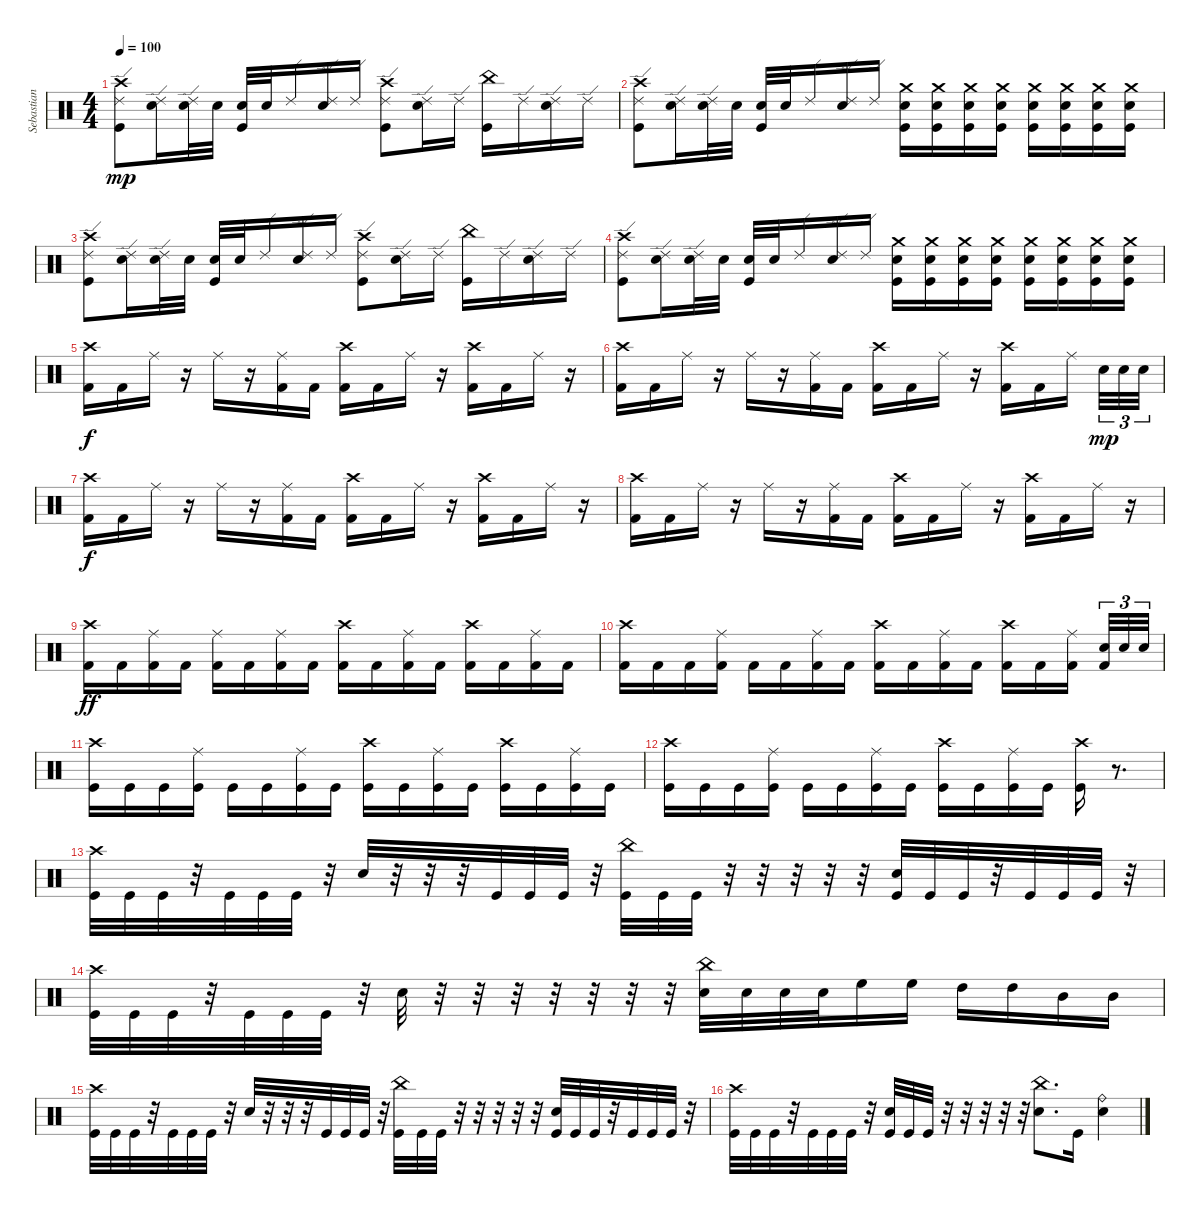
\track ("Sebastian Heldt" "Sebastian ") {instrument percussion bank 177}
\staff {score}
\articulation defaults
\ts (4 4)
\tempo 100
\clef neutral
\ks c
("Crash high (hit)" "Kick (hit)" "Ride (edge) 2").8{dy mp} ("Snare (hit) 2" "Ride (edge) 2").16 ("Snare (hit) 2" "Ride (edge) 2").32 "Snare (hit) 2".32 ("Snare (hit) 2" "Kick (hit)").32 "Snare (hit) 2".32 "Ride (edge) 2".16 ("Snare (hit) 2" "Ride (edge) 2").16 "Ride (edge) 2".16 ("Crash high (hit)" "Kick (hit)" "Ride (edge) 2").8 ("Snare (hit) 2" "Ride (edge) 2").16 "Ride (edge) 2".16 ("China (hit)" "Kick (hit)").16 "Ride (edge) 2".16 ("Snare (hit) 2" "Ride (edge) 2").16 "Ride (edge) 2".16 |
("Crash high (hit)" "Kick (hit)" "Ride (edge) 2").8 ("Snare (hit) 2" "Ride (edge) 2").16 ("Snare (hit) 2" "Ride (edge) 2").32 "Snare (hit) 2".32 ("Snare (hit) 2" "Kick (hit)").32 "Snare (hit) 2".32 "Ride (edge) 2".16 ("Snare (hit) 2" "Ride (edge) 2").16 "Ride (edge) 2".16 ("Kick (hit)" "Crash medium (hit)" "Snare (hit) 2").16 ("Kick (hit)" "Crash medium (hit)" "Snare (hit) 2").16 ("Kick (hit)" "Crash medium (hit)" "Snare (hit) 2").16 ("Kick (hit)" "Crash medium (hit)" "Snare (hit) 2").16 ("Kick (hit)" "Crash medium (hit)" "Snare (hit) 2").16 ("Kick (hit)" "Crash medium (hit)" "Snare (hit) 2").16 ("Kick (hit)" "Crash medium (hit)" "Snare (hit) 2").16 ("Kick (hit)" "Crash medium (hit)" "Snare (hit) 2").16 |
("Crash high (hit)" "Kick (hit)" "Ride (edge) 2").8 ("Snare (hit) 2" "Ride (edge) 2").16 ("Snare (hit) 2" "Ride (edge) 2").32 "Snare (hit) 2".32 ("Snare (hit) 2" "Kick (hit)").32 "Snare (hit) 2".32 "Ride (edge) 2".16 ("Snare (hit) 2" "Ride (edge) 2").16 "Ride (edge) 2".16 ("Crash high (hit)" "Kick (hit)" "Ride (edge) 2").8 ("Snare (hit) 2" "Ride (edge) 2").16 "Ride (edge) 2".16 ("China (hit)" "Kick (hit)").16 "Ride (edge) 2".16 ("Snare (hit) 2" "Ride (edge) 2").16 "Ride (edge) 2".16 |
("Crash high (hit)" "Kick (hit)" "Ride (edge) 2").8 ("Snare (hit) 2" "Ride (edge) 2").16 ("Snare (hit) 2" "Ride (edge) 2").32 "Snare (hit) 2".32 ("Snare (hit) 2" "Kick (hit)").32 "Snare (hit) 2".32 "Ride (edge) 2".16 ("Snare (hit) 2" "Ride (edge) 2").16 "Ride (edge) 2".16 ("Kick (hit)" "Crash medium (hit)" "Snare (hit) 2").16 ("Kick (hit)" "Crash medium (hit)" "Snare (hit) 2").16 ("Kick (hit)" "Crash medium (hit)" "Snare (hit) 2").16 ("Kick (hit)" "Crash medium (hit)" "Snare (hit) 2").16 ("Kick (hit)" "Crash medium (hit)" "Snare (hit) 2").16 ("Kick (hit)" "Crash medium (hit)" "Snare (hit) 2").16 ("Kick (hit)" "Crash medium (hit)" "Snare (hit) 2").16 ("Kick (hit)" "Crash medium (hit)" "Snare (hit) 2").16 |
("Crash high (hit)" "Kick (hit) 2").16{dy f} "Kick (hit) 2".16 "Ride (middle)".16 r.16 "Ride (middle)".16 r.16 ("Ride (middle)" "Kick (hit) 2").16 "Kick (hit) 2".16 ("Crash high (hit)" "Kick (hit) 2").16 "Kick (hit) 2".16 "Ride (middle)".16 r.16 ("Crash high (hit)" "Kick (hit) 2").16 "Kick (hit) 2".16 "Ride (middle)".16 r.16 |
("Crash high (hit)" "Kick (hit) 2").16 "Kick (hit) 2".16 "Ride (middle)".16 r.16 "Ride (middle)".16 r.16 ("Ride (middle)" "Kick (hit) 2").16 "Kick (hit) 2".16 ("Crash high (hit)" "Kick (hit) 2").16 "Kick (hit) 2".16 "Ride (middle)".16 r.16 ("Crash high (hit)" "Kick (hit) 2").16 "Kick (hit) 2".16 "Ride (middle)".16{beam splitsecondary} "Snare (hit) 2".32{tu (3 2) dy mp} "Snare (hit) 2".32{tu (3 2)} "Snare (hit) 2".32{tu (3 2)} |
("Crash high (hit)" "Kick (hit) 2").16{dy f} "Kick (hit) 2".16 "Ride (middle)".16 r.16 "Ride (middle)".16 r.16 ("Ride (middle)" "Kick (hit) 2").16 "Kick (hit) 2".16 ("Crash high (hit)" "Kick (hit) 2").16 "Kick (hit) 2".16 "Ride (middle)".16 r.16 ("Crash high (hit)" "Kick (hit) 2").16 "Kick (hit) 2".16 "Ride (middle)".16 r.16 |
("Crash high (hit)" "Kick (hit) 2").16 "Kick (hit) 2".16 "Ride (middle)".16 r.16 "Ride (middle)".16 r.16 ("Ride (middle)" "Kick (hit) 2").16 "Kick (hit) 2".16 ("Crash high (hit)" "Kick (hit) 2").16 "Kick (hit) 2".16 "Ride (middle)".16 r.16 ("Crash high (hit)" "Kick (hit) 2").16 "Kick (hit) 2".16 "Ride (middle)".16 r.16 |
("Crash high (hit)" "Kick (hit) 2").16{dy ff} "Kick (hit) 2".16 ("Ride (middle)" "Kick (hit) 2").16 "Kick (hit) 2".16 ("Ride (middle)" "Kick (hit) 2").16 "Kick (hit) 2".16 ("Ride (middle)" "Kick (hit) 2").16 "Kick (hit) 2".16 ("Crash high (hit)" "Kick (hit) 2").16 "Kick (hit) 2".16 ("Ride (middle)" "Kick (hit) 2").16 "Kick (hit) 2".16 ("Crash high (hit)" "Kick (hit) 2").16 "Kick (hit) 2".16 ("Ride (middle)" "Kick (hit) 2").16 "Kick (hit) 2".16 |
("Crash high (hit)" "Kick (hit) 2").16 "Kick (hit) 2".16 "Kick (hit) 2".16 ("Ride (middle)" "Kick (hit) 2").16 "Kick (hit) 2".16 "Kick (hit) 2".16 ("Ride (middle)" "Kick (hit) 2").16 "Kick (hit) 2".16 ("Crash high (hit)" "Kick (hit) 2").16 "Kick (hit) 2".16 ("Ride (middle)" "Kick (hit) 2").16 "Kick (hit) 2".16 ("Crash high (hit)" "Kick (hit) 2").16 "Kick (hit) 2".16 ("Ride (middle)" "Kick (hit) 2").16{beam splitsecondary} ("Snare (hit) 2" "Kick (hit) 2").32{tu (3 2)} "Snare (hit) 2".32{tu (3 2)} "Snare (hit) 2".32{tu (3 2)} |
("Crash high (hit)" "Kick (hit)").16 "Kick (hit)".16 "Kick (hit)".16 ("Ride (middle)" "Kick (hit)").16 "Kick (hit)".16 "Kick (hit)".16 ("Ride (middle)" "Kick (hit)").16 "Kick (hit)".16 ("Crash high (hit)" "Kick (hit)").16 "Kick (hit)".16 ("Ride (middle)" "Kick (hit)").16 "Kick (hit)".16 ("Crash high (hit)" "Kick (hit)").16 "Kick (hit)".16 ("Ride (middle)" "Kick (hit)").16 "Kick (hit)".16 |
("Crash high (hit)" "Kick (hit)").16 "Kick (hit)".16 "Kick (hit)".16 ("Ride (middle)" "Kick (hit)").16 "Kick (hit)".16 "Kick (hit)".16 ("Ride (middle)" "Kick (hit)").16 "Kick (hit)".16 ("Crash high (hit)" "Kick (hit)").16 "Kick (hit)".16 ("Ride (middle)" "Kick (hit)").16 "Kick (hit)".16 ("Crash high (hit)" "Kick (hit)").16 r.8{d} |
("Kick (hit)" "Crash high (hit)").32 "Kick (hit)".32 "Kick (hit)".32 r.32 "Kick (hit)".32 "Kick (hit)".32 "Kick (hit)".32 r.32 "Snare (hit) 2".32 r.32 r.32 r.32 "Kick (hit)".32 "Kick (hit)".32 "Kick (hit)".32 r.32 ("Kick (hit)" "China (hit)").32 "Kick (hit)".32 "Kick (hit)".32 r.32 r.32 r.32 r.32 r.32 ("Kick (hit)" "Snare (hit) 2").32 "Kick (hit)".32 "Kick (hit)".32 r.32 "Kick (hit)".32 "Kick (hit)".32 "Kick (hit)".32 r.32 |
("Kick (hit)" "Crash high (hit)").32 "Kick (hit)".32 "Kick (hit)".32 r.32 "Kick (hit)".32 "Kick (hit)".32 "Kick (hit)".32 r.32 "Snare (hit) 2".32 r.32 r.32 r.32 r.32 r.32 r.32 r.32 ("Snare (hit) 2" "China (hit)").32 "Snare (hit) 2".32 "Snare (hit) 2".32 "Snare (hit) 2".32 "High Floor Tom (hit)".16 "High Floor Tom (hit)".16 "High Tom (hit)".16 "High Tom (hit)".16 "Mid Tom (hit)".16 "Mid Tom (hit)".16 |
("Kick (hit)" "Crash high (hit)").32 "Kick (hit)".32 "Kick (hit)".32 r.32 "Kick (hit)".32 "Kick (hit)".32 "Kick (hit)".32 r.32 "Snare (hit) 2".32 r.32 r.32 r.32 "Kick (hit)".32 "Kick (hit)".32 "Kick (hit)".32 r.32 ("Kick (hit)" "China (hit)").32 "Kick (hit)".32 "Kick (hit)".32 r.32 r.32 r.32 r.32 r.32 ("Kick (hit)" "Snare (hit) 2").32 "Kick (hit)".32 "Kick (hit)".32 r.32 "Kick (hit)".32 "Kick (hit)".32 "Kick (hit)".32 r.32 |
("Kick (hit)" "Crash high (hit)").32 "Kick (hit)".32 "Kick (hit)".32 r.32 "Kick (hit)".32 "Kick (hit)".32 "Kick (hit)".32 r.32 ("Kick (hit)" "Snare (hit) 2").32 "Kick (hit)".32 "Kick (hit)".32 r.32 r.32 r.32 r.32 r.32 ("Snare (hit) 2" "China (hit)").8{d} "Kick (hit)".16 ("Ride (bell)" "Snare (hit) 2").4
